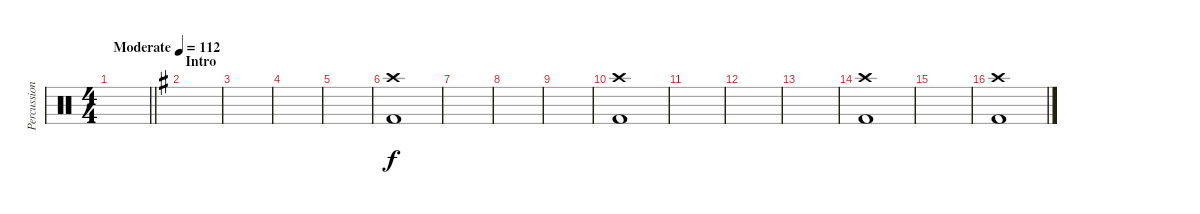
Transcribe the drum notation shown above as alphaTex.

\track ("Percussion" "Percussion") {instrument percussion}
\staff {score}
\articulation defaults
\ts (4 4)
\tempo (112 "Moderate")
\clef neutral
\barLineRight lightlight
\ks c
|
\section ("" "Intro")
\ks g
|
|
|
|
("Crash high (hit)" "Kick (hit) 2").1 |
|
|
|
("Crash high (hit)" "Kick (hit) 2").1 |
|
|
|
("Crash high (hit)" "Kick (hit) 2").1 |
|
("Crash high (hit)" "Kick (hit) 2").1
